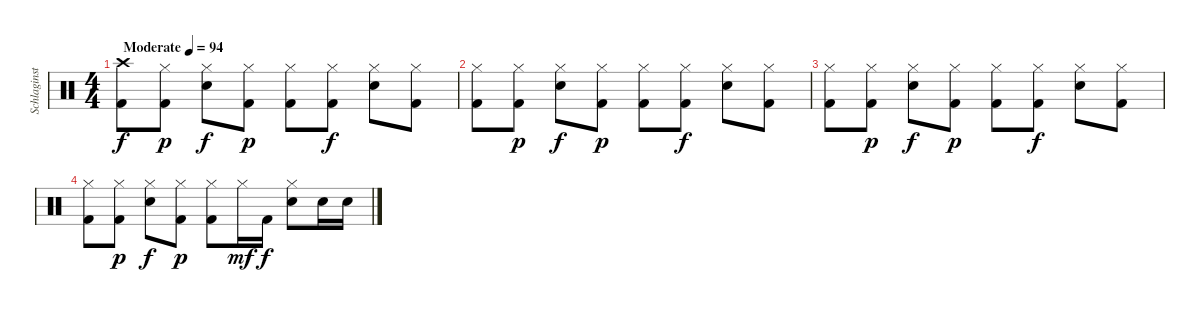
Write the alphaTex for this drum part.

\track ("Schlaginstrumente - Auswahl" "Schlaginst") {instrument percussion}
\staff {score}
\articulation defaults
\ts (4 4)
\tempo (94 "Moderate")
\clef neutral
\ks c
("Crash high (hit)" "Kick (hit) 2").8{dy f} ("Hi-Hat (closed)" "Kick (hit) 2").8{dy p} ("Hi-Hat (closed)" "Electric Snare (hit)").8{dy f} ("Hi-Hat (closed)" "Kick (hit) 2").8{dy p} ("Hi-Hat (closed)" "Kick (hit) 2").8 ("Hi-Hat (closed)" "Kick (hit) 2").8{dy f} ("Hi-Hat (closed)" "Electric Snare (hit)").8 ("Hi-Hat (closed)" "Kick (hit) 2").8 |
("Hi-Hat (closed)" "Kick (hit) 2").8 ("Hi-Hat (closed)" "Kick (hit) 2").8{dy p} ("Hi-Hat (closed)" "Electric Snare (hit)").8{dy f} ("Hi-Hat (closed)" "Kick (hit) 2").8{dy p} ("Hi-Hat (closed)" "Kick (hit) 2").8 ("Hi-Hat (closed)" "Kick (hit) 2").8{dy f} ("Hi-Hat (closed)" "Electric Snare (hit)").8 ("Hi-Hat (closed)" "Kick (hit) 2").8 |
("Hi-Hat (closed)" "Kick (hit) 2").8 ("Hi-Hat (closed)" "Kick (hit) 2").8{dy p} ("Hi-Hat (closed)" "Electric Snare (hit)").8{dy f} ("Hi-Hat (closed)" "Kick (hit) 2").8{dy p} ("Hi-Hat (closed)" "Kick (hit) 2").8 ("Hi-Hat (closed)" "Kick (hit) 2").8{dy f} ("Hi-Hat (closed)" "Electric Snare (hit)").8 ("Hi-Hat (closed)" "Kick (hit) 2").8 |
("Hi-Hat (closed)" "Kick (hit) 2").8 ("Hi-Hat (closed)" "Kick (hit) 2").8{dy p} ("Hi-Hat (closed)" "Electric Snare (hit)").8{dy f} ("Hi-Hat (closed)" "Kick (hit) 2").8{dy p} ("Hi-Hat (closed)" "Kick (hit) 2").8 "Hi-Hat (closed)".16{dy mf} "Kick (hit) 2".16{dy f} ("Hi-Hat (closed)" "Electric Snare (hit)").8 "Electric Snare (hit)".16 "Electric Snare (hit)".16
